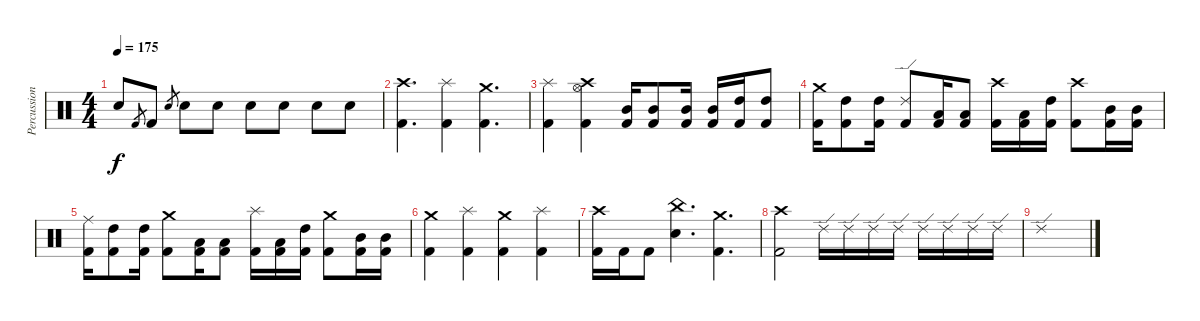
\track ("Percussion" "Percussion") {instrument percussion}
\staff {score}
\articulation defaults
\ts (4 4)
\tempo 175
\clef neutral
\ks c "Electric Snare (hit)".8{dy f} "Kick (hit) 2".8{gr} "Kick (hit) 2".8 "Electric Snare (hit)".8{gr} "Electric Snare (hit)".8 "Electric Snare (hit)".8 "Electric Snare (hit)".8 "Electric Snare (hit)".8 "Electric Snare (hit)".8 "Electric Snare (hit)".8
|
("Crash high (hit)" "Kick (hit) 2").4{d} ("Splash (hit)" "Kick (hit) 2").4 ("Crash medium (hit)" "Kick (hit) 2").4{d} |
("Splash (hit)" "Kick (hit) 2").4 ("Crash high (hit)" "Hi-Hat (open)" "Kick (hit) 2").4 ("Mid Tom (hit)" "Kick (hit) 2").16 ("Mid Tom (hit)" "Kick (hit) 2").8 ("Mid Tom (hit)" "Kick (hit) 2").16 ("Mid Tom (hit)" "Kick (hit) 2").16 ("High Tom (hit)" "Kick (hit) 2").16 ("High Tom (hit)" "Kick (hit) 2").8 |
("Crash medium (hit)" "Kick (hit) 2").16 ("High Tom (hit)" "Kick (hit) 2").8 ("High Tom (hit)" "Kick (hit) 2").16 ("Ride (edge) 2" "Kick (hit) 2").8 ("Low Tom (hit)" "Kick (hit) 2").16 ("Low Tom (hit)" "Kick (hit) 2").8 ("Crash high (hit)" "Kick (hit) 2").16 ("Low Tom (hit)" "Kick (hit) 2").16 ("High Tom (hit)" "Kick (hit) 2").16 ("Crash high (hit)" "Kick (hit) 2").8 ("Mid Tom (hit)" "Kick (hit) 2").16 ("Mid Tom (hit)" "Kick (hit) 2").16 |
("Ride (middle)" "Kick (hit) 2").16 ("High Tom (hit)" "Kick (hit) 2").8 ("High Tom (hit)" "Kick (hit) 2").16 ("Crash medium (hit)" "Kick (hit) 2").8 ("Low Tom (hit)" "Kick (hit) 2").16 ("Low Tom (hit)" "Kick (hit) 2").8 ("Splash (hit)" "Kick (hit) 2").16 ("Low Tom (hit)" "Kick (hit) 2").16 ("High Tom (hit)" "Kick (hit) 2").16 ("Crash medium (hit)" "Kick (hit) 2").8 ("Mid Tom (hit)" "Kick (hit) 2").16 ("Mid Tom (hit)" "Kick (hit) 2").16 |
("Crash medium (hit)" "Kick (hit) 2").4 ("Splash (hit)" "Kick (hit) 2").4 ("Crash medium (hit)" "Kick (hit) 2").4 ("Splash (hit)" "Kick (hit) 2").4 |
("Crash high (hit)" "Kick (hit) 2").16 "Kick (hit) 2".16 "Kick (hit) 2".8 ("China (hit)" "Electric Snare (hit)").4{d} ("Crash medium (hit)" "Kick (hit) 2").4{d} |
("Crash high (hit)" "Kick (hit) 2").2 "Ride (edge) 2".16 "Ride (edge) 2".16 "Ride (edge) 2".16 "Ride (edge) 2".16 "Ride (edge) 2".16 "Ride (edge) 2".16 "Ride (edge) 2".16 "Ride (edge) 2".16 |
"Ride (edge) 2".1
